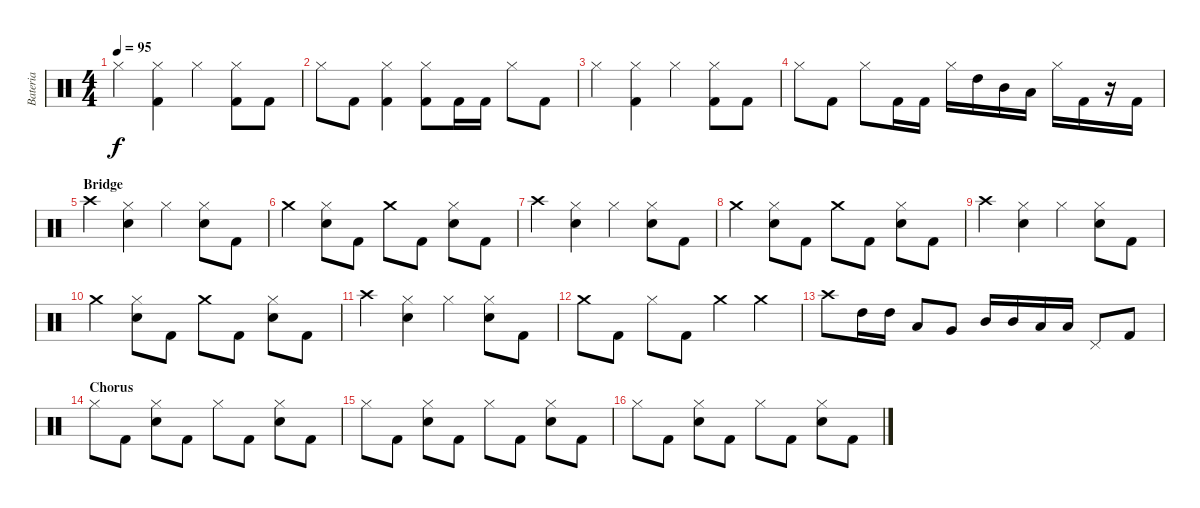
\track ("Bateria" "Bateria") {instrument percussion}
\staff {score}
\articulation defaults
\ts (4 4)
\tempo 95
\clef neutral
\ks c "Hi-Hat (closed)".4{dy f}
("Hi-Hat (closed)" "Kick (hit) 2").4 "Hi-Hat (closed)".4 ("Hi-Hat (closed)" "Kick (hit) 2").8 "Kick (hit) 2".8 |
"Hi-Hat (closed)".8 "Kick (hit) 2".8 ("Hi-Hat (closed)" "Kick (hit) 2").4 ("Hi-Hat (closed)" "Kick (hit) 2").8 "Kick (hit) 2".16 "Kick (hit) 2".16 "Hi-Hat (closed)".8 "Kick (hit) 2".8 |
"Hi-Hat (closed)".4 ("Hi-Hat (closed)" "Kick (hit) 2").4 "Hi-Hat (closed)".4 ("Hi-Hat (closed)" "Kick (hit) 2").8 "Kick (hit) 2".8 |
"Hi-Hat (closed)".8 "Kick (hit) 2".8 "Hi-Hat (closed)".8 "Kick (hit) 2".16 "Kick (hit) 2".16 "Hi-Hat (closed)".16 "High Tom (hit)".16 "Mid Tom (hit)".16 "Low Tom (hit)".16 "Hi-Hat (closed)".16 "Kick (hit) 2".16 r.16 "Kick (hit) 2".16 |
\section ("" "Bridge")
"Crash high (hit)".4 ("Hi-Hat (closed)" "Snare (hit) 2").4 "Hi-Hat (closed)".4 ("Hi-Hat (closed)" "Snare (hit) 2").8 "Kick (hit) 2".8 |
"Crash medium (hit)".4 ("Hi-Hat (closed)" "Snare (hit) 2").8 "Kick (hit) 2".8 "Crash medium (hit)".8 "Kick (hit) 2".8 ("Hi-Hat (closed)" "Snare (hit) 2").8 "Kick (hit) 2".8 |
"Crash high (hit)".4 ("Hi-Hat (closed)" "Snare (hit) 2").4 "Hi-Hat (closed)".4 ("Hi-Hat (closed)" "Snare (hit) 2").8 "Kick (hit) 2".8 |
"Crash medium (hit)".4 ("Hi-Hat (closed)" "Snare (hit) 2").8 "Kick (hit) 2".8 "Crash medium (hit)".8 "Kick (hit) 2".8 ("Hi-Hat (closed)" "Snare (hit) 2").8 "Kick (hit) 2".8 |
"Crash high (hit)".4 ("Hi-Hat (closed)" "Snare (hit) 2").4 "Hi-Hat (closed)".4 ("Hi-Hat (closed)" "Snare (hit) 2").8 "Kick (hit) 2".8 |
"Crash medium (hit)".4 ("Hi-Hat (closed)" "Snare (hit) 2").8 "Kick (hit) 2".8 "Crash medium (hit)".8 "Kick (hit) 2".8 ("Hi-Hat (closed)" "Snare (hit) 2").8 "Kick (hit) 2".8 |
"Crash high (hit)".4 ("Hi-Hat (closed)" "Snare (hit) 2").4 "Hi-Hat (closed)".4 ("Hi-Hat (closed)" "Snare (hit) 2").8 "Kick (hit) 2".8 |
"Crash medium (hit)".8 "Kick (hit) 2".8 "Hi-Hat (closed)".8 "Kick (hit) 2".8 "Crash medium (hit)".4 "Crash medium (hit)".4 |
"Crash high (hit)".8 "High Tom (hit)".16 "High Tom (hit)".16 "Low Tom (hit)".8 "Very Low Tom (hit)".8 "Mid Tom (hit)".16 "Mid Tom (hit)".16 "Low Tom (hit)".16 "Low Tom (hit)".16 "Pedal Hi-Hat (hit)".8 "Kick (hit) 2".8 |
\section ("" "Chorus")
"Hi-Hat (closed)".8 "Kick (hit) 2".8 ("Hi-Hat (closed)" "Electric Snare (hit)").8 "Kick (hit) 2".8 "Hi-Hat (closed)".8 "Kick (hit) 2".8 ("Hi-Hat (closed)" "Electric Snare (hit)").8 "Kick (hit) 2".8 |
"Hi-Hat (closed)".8 "Kick (hit) 2".8 ("Hi-Hat (closed)" "Electric Snare (hit)").8 "Kick (hit) 2".8 "Hi-Hat (closed)".8 "Kick (hit) 2".8 ("Hi-Hat (closed)" "Electric Snare (hit)").8 "Kick (hit) 2".8 |
"Hi-Hat (closed)".8 "Kick (hit) 2".8 ("Hi-Hat (closed)" "Electric Snare (hit)").8 "Kick (hit) 2".8 "Hi-Hat (closed)".8 "Kick (hit) 2".8 ("Hi-Hat (closed)" "Electric Snare (hit)").8 "Kick (hit) 2".8
